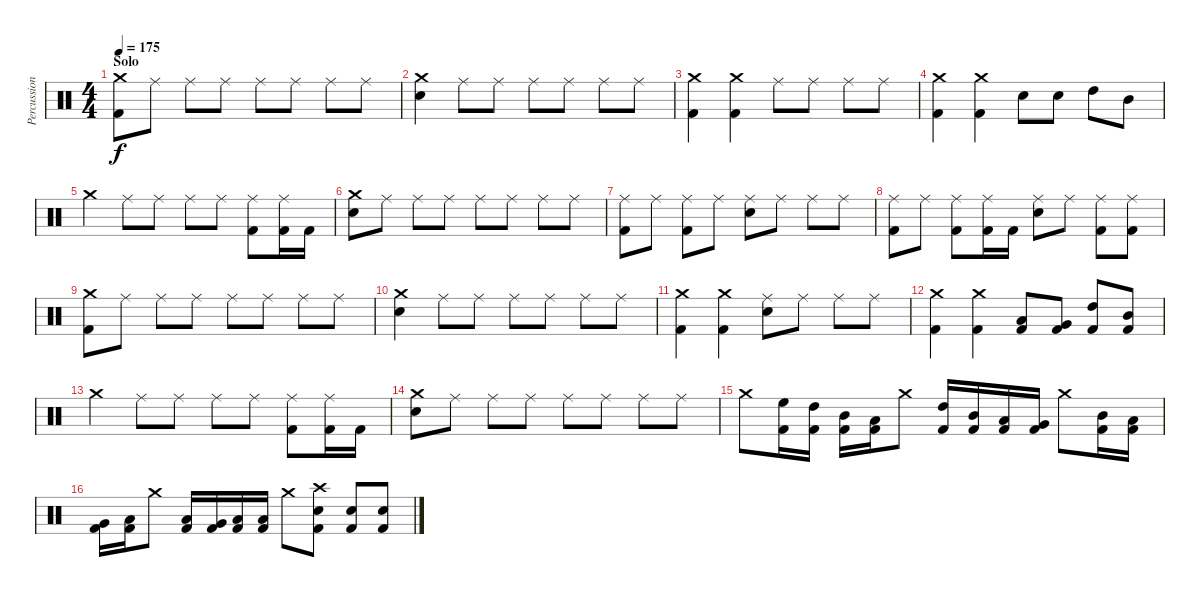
\track ("Percussion" "Percussion") {instrument percussion}
\staff {score}
\articulation defaults
\ts (4 4)
\section ("" "Solo")
\tempo 175
\clef neutral
\ks c
("Crash medium (hit)" "Kick (hit) 2").8{dy f} "Ride (middle)".8 "Ride (middle)".8 "Ride (middle)".8 "Ride (middle)".8 "Ride (middle)".8 "Ride (middle)".8 "Ride (middle)".8 |
("Crash medium (hit)" "Electric Snare (hit)").4 "Ride (middle)".8 "Ride (middle)".8 "Ride (middle)".8 "Ride (middle)".8 "Ride (middle)".8 "Ride (middle)".8 |
("Crash medium (hit)" "Kick (hit) 2").4 ("Crash medium (hit)" "Kick (hit) 2").4 "Ride (middle)".8 "Ride (middle)".8 "Ride (middle)".8 "Ride (middle)".8 |
("Crash medium (hit)" "Kick (hit) 2").4 ("Crash medium (hit)" "Kick (hit) 2").4 "Electric Snare (hit)".8 "Electric Snare (hit)".8 "High Tom (hit)".8 "Mid Tom (hit)".8 |
"Crash medium (hit)".4 "Ride (middle)".8 "Ride (middle)".8 "Ride (middle)".8 "Ride (middle)".8 ("Ride (middle)" "Kick (hit) 2").8 ("Ride (middle)" "Kick (hit) 2").16 "Kick (hit) 2".16 |
("Crash medium (hit)" "Electric Snare (hit)").8 "Ride (middle)".8 "Ride (middle)".8 "Ride (middle)".8 "Ride (middle)".8 "Ride (middle)".8 "Ride (middle)".8 "Ride (middle)".8 |
("Ride (middle)" "Kick (hit) 2").8 "Ride (middle)".8 ("Ride (middle)" "Kick (hit) 2").8 "Ride (middle)".8 ("Ride (middle)" "Electric Snare (hit)").8 "Ride (middle)".8 "Ride (middle)".8 "Ride (middle)".8 |
("Ride (middle)" "Kick (hit) 2").8 "Ride (middle)".8 ("Ride (middle)" "Kick (hit) 2").8 ("Ride (middle)" "Kick (hit) 2").16 "Kick (hit) 2".16 ("Ride (middle)" "Electric Snare (hit)").8 "Ride (middle)".8 ("Ride (middle)" "Kick (hit) 2").8 ("Ride (middle)" "Kick (hit) 2").8 |
("Crash medium (hit)" "Kick (hit) 2").8 "Ride (middle)".8 "Ride (middle)".8 "Ride (middle)".8 "Ride (middle)".8 "Ride (middle)".8 "Ride (middle)".8 "Ride (middle)".8 |
("Crash medium (hit)" "Electric Snare (hit)").4 "Ride (middle)".8 "Ride (middle)".8 "Ride (middle)".8 "Ride (middle)".8 "Ride (middle)".8 "Ride (middle)".8 |
("Crash medium (hit)" "Kick (hit) 2").4 ("Crash medium (hit)" "Kick (hit) 2").4 ("Ride (middle)" "Electric Snare (hit)").8 "Ride (middle)".8 "Ride (middle)".8 "Ride (middle)".8 |
("Crash medium (hit)" "Kick (hit) 2").4 ("Crash medium (hit)" "Kick (hit) 2").4 ("Low Floor Tom (hit)" "Kick (hit) 2").8 ("Very Low Tom (hit)" "Kick (hit) 2").8 ("High Tom (hit)" "Kick (hit) 2").8 ("Mid Tom (hit)" "Kick (hit) 2").8 |
"Crash medium (hit)".4 "Ride (middle)".8 "Ride (middle)".8 "Ride (middle)".8 "Ride (middle)".8 ("Ride (middle)" "Kick (hit) 2").8 ("Ride (middle)" "Kick (hit) 2").16 "Kick (hit) 2".16 |
("Crash medium (hit)" "Electric Snare (hit)").8 "Ride (middle)".8 "Ride (middle)".8 "Ride (middle)".8 "Ride (middle)".8 "Ride (middle)".8 "Ride (middle)".8 "Ride (middle)".8 |
"Crash medium (hit)".8 ("High Floor Tom (hit)" "Kick (hit) 2").16 ("High Tom (hit)" "Kick (hit) 2").16 ("Mid Tom (hit)" "Kick (hit) 2").16 ("Low Tom (hit)" "Kick (hit) 2").16 "Crash medium (hit)".8 ("High Tom (hit)" "Kick (hit) 2").16 ("Mid Tom (hit)" "Kick (hit) 2").16 ("Low Tom (hit)" "Kick (hit) 2").16 ("Very Low Tom (hit)" "Kick (hit) 2").16 "Crash medium (hit)".8 ("Mid Tom (hit)" "Kick (hit) 2").16 ("Low Tom (hit)" "Kick (hit) 2").16 |
("Very Low Tom (hit)" "Kick (hit) 2").16 ("Low Floor Tom (hit)" "Kick (hit) 2").16 "Crash medium (hit)".8 ("Low Tom (hit)" "Kick (hit) 2").16 ("Very Low Tom (hit)" "Kick (hit) 2").16 ("Low Floor Tom (hit)" "Kick (hit) 2").16 ("Low Floor Tom (hit)" "Kick (hit) 2").16 "Crash medium (hit)".8 ("Crash high (hit)" "Electric Snare (hit)" "Kick (hit) 2").8 ("Electric Snare (hit)" "Kick (hit) 2").8 ("Electric Snare (hit)" "Kick (hit) 2").8
